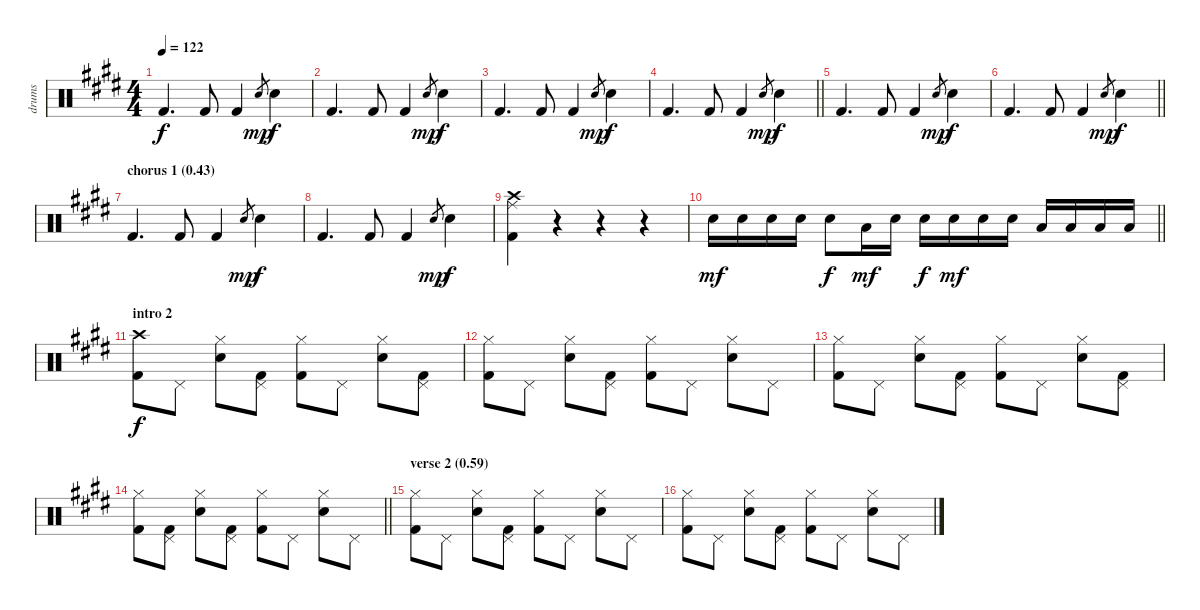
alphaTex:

\track ("drums" "drums") {instrument percussion}
\staff {score}
\articulation defaults
\ts (4 4)
\tempo 122
\clef neutral
\ks e "Kick (hit) 2".4{d dy f} "Kick (hit) 2".8 "Kick (hit) 2".4 "Electric Snare (hit)".8{gr dy mp} "Electric Snare (hit)".4{dy f}
|
"Kick (hit) 2".4{d} "Kick (hit) 2".8 "Kick (hit) 2".4 "Electric Snare (hit)".8{gr dy mp} "Electric Snare (hit)".4{dy f} |
"Kick (hit) 2".4{d} "Kick (hit) 2".8 "Kick (hit) 2".4 "Electric Snare (hit)".8{gr dy mp} "Electric Snare (hit)".4{dy f} |
\barLineRight lightlight "Kick (hit) 2".4{d} "Kick (hit) 2".8 "Kick (hit) 2".4 "Electric Snare (hit)".8{gr dy mp} "Electric Snare (hit)".4{dy f}
|
"Kick (hit) 2".4{d} "Kick (hit) 2".8 "Kick (hit) 2".4 "Electric Snare (hit)".8{gr dy mp} "Electric Snare (hit)".4{dy f} |
\barLineRight lightlight "Kick (hit) 2".4{d} "Kick (hit) 2".8 "Kick (hit) 2".4 "Electric Snare (hit)".8{gr dy mp} "Electric Snare (hit)".4{dy f}
|
\section ("" "chorus 1 (0.43)")
"Kick (hit) 2".4{d} "Kick (hit) 2".8 "Kick (hit) 2".4 "Electric Snare (hit)".8{gr dy mp} "Electric Snare (hit)".4{dy f} |
"Kick (hit) 2".4{d} "Kick (hit) 2".8 "Kick (hit) 2".4 "Electric Snare (hit)".8{gr dy mp} "Electric Snare (hit)".4{dy f} |
("Ride (middle)" "Crash high (hit)" "Kick (hit) 2").4 r.4 r.4 r.4 |
\barLineRight lightlight "Electric Snare (hit)".16{dy mf} "Electric Snare (hit)".16 "Electric Snare (hit)".16 "Electric Snare (hit)".16 "Electric Snare (hit)".8{dy f} "Low Tom (hit)".16{dy mf} "Electric Snare (hit)".16 "Electric Snare (hit)".16{dy f} "Electric Snare (hit)".16{dy mf} "Electric Snare (hit)".16 "Electric Snare (hit)".16 "Low Tom (hit)".16 "Low Tom (hit)".16 "Low Tom (hit)".16 "Low Tom (hit)".16
|
\section ("" "intro 2")
("Crash high (hit)" "Kick (hit) 2").8{dy f} "Pedal Hi-Hat (hit)".8 ("Hi-Hat (closed)" "Electric Snare (hit)").8 ("Pedal Hi-Hat (hit)" "Kick (hit) 2").8 ("Hi-Hat (closed)" "Kick (hit) 2").8 "Pedal Hi-Hat (hit)".8 ("Hi-Hat (closed)" "Electric Snare (hit)").8 ("Pedal Hi-Hat (hit)" "Kick (hit) 2").8 |
("Hi-Hat (closed)" "Kick (hit) 2").8 "Pedal Hi-Hat (hit)".8 ("Hi-Hat (closed)" "Electric Snare (hit)").8 ("Pedal Hi-Hat (hit)" "Kick (hit) 2").8 ("Hi-Hat (closed)" "Kick (hit) 2").8 "Pedal Hi-Hat (hit)".8 ("Hi-Hat (closed)" "Electric Snare (hit)").8 "Pedal Hi-Hat (hit)".8 |
("Hi-Hat (closed)" "Kick (hit) 2").8 "Pedal Hi-Hat (hit)".8 ("Hi-Hat (closed)" "Electric Snare (hit)").8 ("Pedal Hi-Hat (hit)" "Kick (hit) 2").8 ("Hi-Hat (closed)" "Kick (hit) 2").8 "Pedal Hi-Hat (hit)".8 ("Hi-Hat (closed)" "Electric Snare (hit)").8 ("Pedal Hi-Hat (hit)" "Kick (hit) 2").8 |
\barLineRight lightlight
("Hi-Hat (closed)" "Kick (hit) 2").8 ("Pedal Hi-Hat (hit)" "Kick (hit) 2").8 ("Hi-Hat (closed)" "Electric Snare (hit)").8 ("Pedal Hi-Hat (hit)" "Kick (hit) 2").8 ("Hi-Hat (closed)" "Kick (hit) 2").8 "Pedal Hi-Hat (hit)".8 ("Hi-Hat (closed)" "Electric Snare (hit)").8 "Pedal Hi-Hat (hit)".8 |
\section ("" "verse 2 (0.59)")
("Hi-Hat (closed)" "Kick (hit) 2").8 "Pedal Hi-Hat (hit)".8 ("Hi-Hat (closed)" "Electric Snare (hit)").8 ("Pedal Hi-Hat (hit)" "Kick (hit) 2").8 ("Hi-Hat (closed)" "Kick (hit) 2").8 "Pedal Hi-Hat (hit)".8 ("Hi-Hat (closed)" "Electric Snare (hit)").8 "Pedal Hi-Hat (hit)".8 |
("Hi-Hat (closed)" "Kick (hit) 2").8 "Pedal Hi-Hat (hit)".8 ("Hi-Hat (closed)" "Electric Snare (hit)").8 ("Pedal Hi-Hat (hit)" "Kick (hit) 2").8 ("Hi-Hat (closed)" "Kick (hit) 2").8 "Pedal Hi-Hat (hit)".8 ("Hi-Hat (closed)" "Electric Snare (hit)").8 "Pedal Hi-Hat (hit)".8
